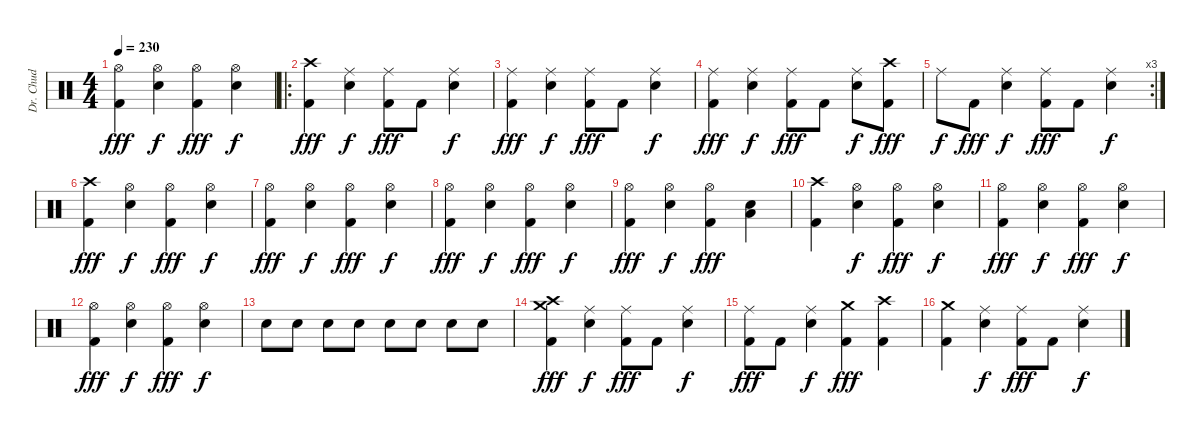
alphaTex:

\track ("Dr. Chud" "Dr. Chud") {instrument percussion}
\staff {score}
\articulation defaults
\ts (4 4)
\tempo 230
\clef neutral
\ks c
("Hi-Hat (open)" "Kick (hit) 2").4{dy fff} ("Hi-Hat (open)" "Snare (hit) 2").4{dy f} ("Hi-Hat (open)" "Kick (hit) 2").4{dy fff} ("Hi-Hat (open)" "Snare (hit) 2").4{dy f} |
\ro
("Crash high (hit)" "Kick (hit) 2").4{dy fff} ("Ride (middle)" "Snare (hit) 2").4{dy f} ("Ride (middle)" "Kick (hit) 2").8{dy fff} "Kick (hit) 2".8 ("Ride (middle)" "Snare (hit) 2").4{dy f} |
("Ride (middle)" "Kick (hit) 2").4{dy fff} ("Ride (middle)" "Snare (hit) 2").4{dy f} ("Ride (middle)" "Kick (hit) 2").8{dy fff} "Kick (hit) 2".8 ("Ride (middle)" "Snare (hit) 2").4{dy f} |
("Ride (middle)" "Kick (hit) 2").4{dy fff} ("Ride (middle)" "Snare (hit) 2").4{dy f} ("Ride (middle)" "Kick (hit) 2").8{dy fff} "Kick (hit) 2".8 ("Ride (middle)" "Snare (hit) 2").8{dy f} ("Crash high (hit)" "Kick (hit) 2").8{dy fff} |
\rc 3 "Ride (middle)".8{dy f} "Kick (hit) 2".8{dy fff}
("Ride (middle)" "Snare (hit) 2").4{dy f} ("Ride (middle)" "Kick (hit) 2").8{dy fff} "Kick (hit) 2".8 ("Ride (middle)" "Snare (hit) 2").4{dy f} |
("Crash high (hit)" "Kick (hit) 2").4{dy fff} ("Hi-Hat (open)" "Snare (hit) 2").4{dy f} ("Hi-Hat (open)" "Kick (hit) 2").4{dy fff} ("Hi-Hat (open)" "Snare (hit) 2").4{dy f} |
("Hi-Hat (open)" "Kick (hit) 2").4{dy fff} ("Hi-Hat (open)" "Snare (hit) 2").4{dy f} ("Hi-Hat (open)" "Kick (hit) 2").4{dy fff} ("Hi-Hat (open)" "Snare (hit) 2").4{dy f} |
("Hi-Hat (open)" "Kick (hit) 2").4{dy fff} ("Hi-Hat (open)" "Snare (hit) 2").4{dy f} ("Hi-Hat (open)" "Kick (hit) 2").4{dy fff} ("Hi-Hat (open)" "Snare (hit) 2").4{dy f} |
("Hi-Hat (open)" "Kick (hit) 2").4{dy fff} ("Hi-Hat (open)" "Snare (hit) 2").4{dy f} ("Hi-Hat (open)" "Kick (hit) 2").4{dy fff} ("Low Tom (hit)" "Snare (hit) 2").4 |
("Crash high (hit)" "Kick (hit) 2").4 ("Hi-Hat (open)" "Snare (hit) 2").4{dy f} ("Hi-Hat (open)" "Kick (hit) 2").4{dy fff} ("Hi-Hat (open)" "Snare (hit) 2").4{dy f} |
("Hi-Hat (open)" "Kick (hit) 2").4{dy fff} ("Hi-Hat (open)" "Snare (hit) 2").4{dy f} ("Hi-Hat (open)" "Kick (hit) 2").4{dy fff} ("Hi-Hat (open)" "Snare (hit) 2").4{dy f} |
("Hi-Hat (open)" "Kick (hit) 2").4{dy fff} ("Hi-Hat (open)" "Snare (hit) 2").4{dy f} ("Hi-Hat (open)" "Kick (hit) 2").4{dy fff} ("Hi-Hat (open)" "Snare (hit) 2").4{dy f} |
"Snare (hit) 2".8 "Snare (hit) 2".8 "Snare (hit) 2".8 "Snare (hit) 2".8 "Snare (hit) 2".8 "Snare (hit) 2".8 "Snare (hit) 2".8 "Snare (hit) 2".8 |
("Crash high (hit)" "Crash medium (hit)" "Kick (hit) 2").4{dy fff} ("Ride (middle)" "Snare (hit) 2").4{dy f} ("Ride (middle)" "Kick (hit) 2").8{dy fff} "Kick (hit) 2".8 ("Ride (middle)" "Snare (hit) 2").4{dy f} |
("Ride (middle)" "Kick (hit) 2").8{dy fff} "Kick (hit) 2".8 ("Ride (middle)" "Snare (hit) 2").4{dy f} ("Crash medium (hit)" "Kick (hit) 2").4{dy fff} ("Crash high (hit)" "Kick (hit) 2").4 |
("Crash medium (hit)" "Kick (hit) 2").4 ("Ride (middle)" "Snare (hit) 2").4{dy f} ("Ride (middle)" "Kick (hit) 2").8{dy fff} "Kick (hit) 2".8 ("Ride (middle)" "Snare (hit) 2").4{dy f}
